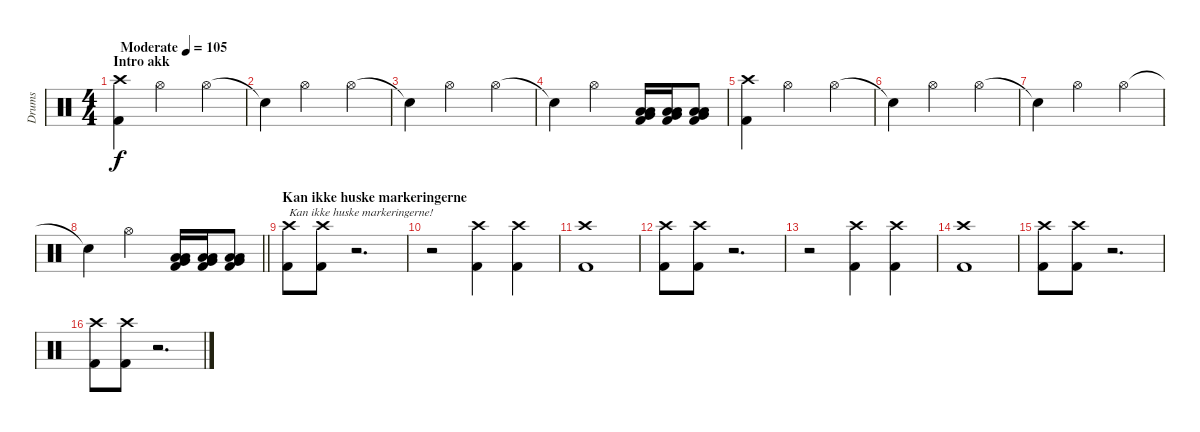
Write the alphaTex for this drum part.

\track ("Drums" "Drums") {instrument percussion}
\staff {score}
\articulation defaults
\ts (4 4)
\section ("" "Intro akk")
\tempo (105 "Moderate")
\clef neutral
\ks c
("Crash high (hit)" "Kick (hit) 2").4{dy f} "Hi-Hat (open)".2 "Hi-Hat (open)".4 |
"Snare (hit)"{t}.4 "Hi-Hat (open)".2 "Hi-Hat (open)".4 |
"Snare (hit)"{t}.4 "Hi-Hat (open)".2 "Hi-Hat (open)".4 |
"Snare (hit)"{t}.4 "Hi-Hat (open)".2 ("Low Tom (hit)" "Low Floor Tom (hit)" "Very Low Tom (hit)" "Kick (hit) 2").16 ("Low Tom (hit)" "Low Floor Tom (hit)" "Very Low Tom (hit)" "Kick (hit) 2").16 ("Low Tom (hit)" "Low Floor Tom (hit)" "Very Low Tom (hit)" "Kick (hit) 2").8 |
("Crash high (hit)" "Kick (hit) 2").4 "Hi-Hat (open)".2 "Hi-Hat (open)".4 |
"Snare (hit)"{t}.4 "Hi-Hat (open)".2 "Hi-Hat (open)".4 |
"Snare (hit)"{t}.4 "Hi-Hat (open)".2 "Hi-Hat (open)".4 |
\barLineRight lightlight "Snare (hit)"{t}.4 "Hi-Hat (open)".2
("Low Tom (hit)" "Low Floor Tom (hit)" "Very Low Tom (hit)" "Kick (hit) 2").16 ("Low Tom (hit)" "Low Floor Tom (hit)" "Very Low Tom (hit)" "Kick (hit) 2").16 ("Low Tom (hit)" "Low Floor Tom (hit)" "Very Low Tom (hit)" "Kick (hit) 2").8 |
\section ("" "Kan ikke huske markeringerne")
("Crash high (hit)" "Kick (hit) 2").8{txt "Kan ikke huske markeringerne!"} ("Crash high (hit)" "Kick (hit) 2").8 r.2{d} |
r.2 ("Crash high (hit)" "Kick (hit) 2").4 ("Crash high (hit)" "Kick (hit) 2").4 |
("Crash high (hit)" "Kick (hit) 2").1 |
("Crash high (hit)" "Kick (hit) 2").8 ("Crash high (hit)" "Kick (hit) 2").8 r.2{d} |
r.2 ("Crash high (hit)" "Kick (hit) 2").4 ("Crash high (hit)" "Kick (hit) 2").4 |
("Crash high (hit)" "Kick (hit) 2").1 |
("Crash high (hit)" "Kick (hit) 2").8 ("Crash high (hit)" "Kick (hit) 2").8 r.2{d} |
("Crash high (hit)" "Kick (hit) 2").8 ("Crash high (hit)" "Kick (hit) 2").8 r.2{d}
